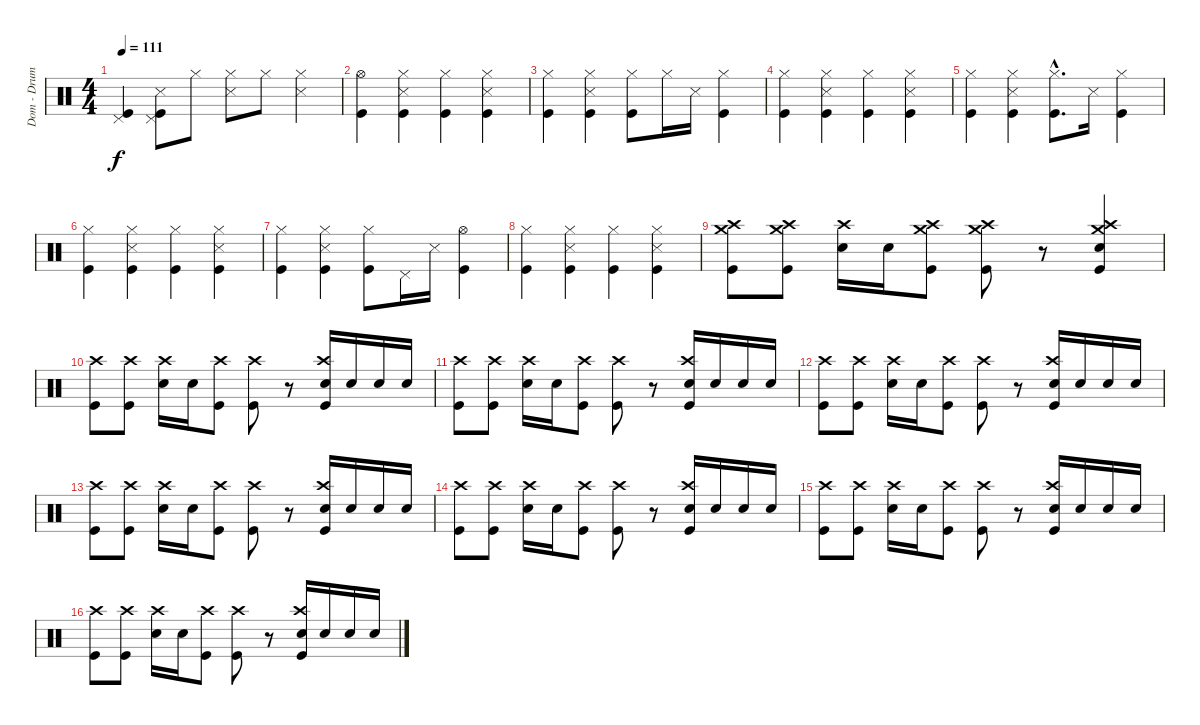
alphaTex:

\track ("Dom - Drums" "Dom - Drum") {instrument percussion}
\staff {score}
\articulation defaults
\ts (4 4)
\tempo 111
\clef neutral
\ks c
("Pedal Hi-Hat (hit)" "Kick (hit)").4{dy f} ("Pedal Hi-Hat (hit)" "Snare (side stick) 3" "Kick (hit)").8 "Hi-Hat (closed)".8 ("Hi-Hat (closed)" "Snare (side stick) 3").8 "Hi-Hat (closed)".8 ("Hi-Hat (closed)" "Snare (side stick) 3").4 |
("Hi-Hat (open)" "Kick (hit)").4 ("Hi-Hat (closed)" "Snare (side stick) 3" "Kick (hit)").4 ("Hi-Hat (closed)" "Kick (hit)").4 ("Hi-Hat (closed)" "Snare (side stick) 3" "Kick (hit)").4 |
("Hi-Hat (closed)" "Kick (hit)").4 ("Hi-Hat (closed)" "Snare (side stick) 3" "Kick (hit)").4 ("Hi-Hat (closed)" "Kick (hit)").8 "Hi-Hat (closed)".16 "Snare (side stick) 3".16 ("Hi-Hat (closed)" "Kick (hit)").4 |
("Hi-Hat (closed)" "Kick (hit)").4 ("Hi-Hat (closed)" "Snare (side stick) 3" "Kick (hit)").4 ("Hi-Hat (closed)" "Kick (hit)").4 ("Hi-Hat (closed)" "Snare (side stick) 3" "Kick (hit)").4 |
("Hi-Hat (closed)" "Kick (hit)").4 ("Hi-Hat (closed)" "Snare (side stick) 3" "Kick (hit)").4 ("Hi-Hat (closed)"{hac} "Kick (hit)"{hac}).8{d} "Snare (side stick) 3".16 ("Hi-Hat (closed)" "Kick (hit)").4 |
("Hi-Hat (closed)" "Kick (hit)").4 ("Hi-Hat (closed)" "Snare (side stick) 3" "Kick (hit)").4 ("Hi-Hat (closed)" "Kick (hit)").4 ("Hi-Hat (closed)" "Snare (side stick) 3" "Kick (hit)").4 |
("Hi-Hat (closed)" "Kick (hit)").4 ("Hi-Hat (closed)" "Snare (side stick) 3" "Kick (hit)").4 ("Hi-Hat (closed)" "Kick (hit)").8 "Pedal Hi-Hat (hit)".16 "Snare (side stick) 3".16 ("Hi-Hat (open)" "Kick (hit)").4 |
("Hi-Hat (closed)" "Kick (hit)").4 ("Hi-Hat (closed)" "Snare (side stick) 3" "Kick (hit)").4 ("Hi-Hat (closed)" "Kick (hit)").4 ("Hi-Hat (closed)" "Snare (side stick) 3" "Kick (hit)").4 |
("Crash high (hit)" "Crash medium (hit)" "Kick (hit)").8 ("Crash high (hit)" "Crash medium (hit)" "Kick (hit)").8 ("Crash high (hit)" "Electric Snare (hit)").16 "Electric Snare (hit)".16 ("Crash high (hit)" "Crash medium (hit)" "Kick (hit)").8 ("Crash high (hit)" "Crash medium (hit)" "Kick (hit)").8 r.8 ("Crash high (hit)" "Crash medium (hit)" "Electric Snare (hit)" "Kick (hit)").4 |
("Crash high (hit)" "Kick (hit)").8 ("Crash high (hit)" "Kick (hit)").8 ("Crash high (hit)" "Electric Snare (hit)").16 "Electric Snare (hit)".16 ("Crash high (hit)" "Kick (hit)").8 ("Crash high (hit)" "Kick (hit)").8 r.8 ("Crash high (hit)" "Electric Snare (hit)" "Kick (hit)").16 "Electric Snare (hit)".16 "Electric Snare (hit)".16 "Electric Snare (hit)".16 |
("Crash high (hit)" "Kick (hit)").8 ("Crash high (hit)" "Kick (hit)").8 ("Crash high (hit)" "Electric Snare (hit)").16 "Electric Snare (hit)".16 ("Crash high (hit)" "Kick (hit)").8 ("Crash high (hit)" "Kick (hit)").8 r.8 ("Crash high (hit)" "Electric Snare (hit)" "Kick (hit)").16 "Electric Snare (hit)".16 "Electric Snare (hit)".16 "Electric Snare (hit)".16 |
("Crash high (hit)" "Kick (hit)").8 ("Crash high (hit)" "Kick (hit)").8 ("Crash high (hit)" "Electric Snare (hit)").16 "Electric Snare (hit)".16 ("Crash high (hit)" "Kick (hit)").8 ("Crash high (hit)" "Kick (hit)").8 r.8 ("Crash high (hit)" "Electric Snare (hit)" "Kick (hit)").16 "Electric Snare (hit)".16 "Electric Snare (hit)".16 "Electric Snare (hit)".16 |
("Crash high (hit)" "Kick (hit)").8 ("Crash high (hit)" "Kick (hit)").8 ("Crash high (hit)" "Electric Snare (hit)").16 "Electric Snare (hit)".16 ("Crash high (hit)" "Kick (hit)").8 ("Crash high (hit)" "Kick (hit)").8 r.8 ("Crash high (hit)" "Electric Snare (hit)" "Kick (hit)").16 "Electric Snare (hit)".16 "Electric Snare (hit)".16 "Electric Snare (hit)".16 |
("Crash high (hit)" "Kick (hit)").8 ("Crash high (hit)" "Kick (hit)").8 ("Crash high (hit)" "Electric Snare (hit)").16 "Electric Snare (hit)".16 ("Crash high (hit)" "Kick (hit)").8 ("Crash high (hit)" "Kick (hit)").8 r.8 ("Crash high (hit)" "Electric Snare (hit)" "Kick (hit)").16 "Electric Snare (hit)".16 "Electric Snare (hit)".16 "Electric Snare (hit)".16 |
("Crash high (hit)" "Kick (hit)").8 ("Crash high (hit)" "Kick (hit)").8 ("Crash high (hit)" "Electric Snare (hit)").16 "Electric Snare (hit)".16 ("Crash high (hit)" "Kick (hit)").8 ("Crash high (hit)" "Kick (hit)").8 r.8 ("Crash high (hit)" "Electric Snare (hit)" "Kick (hit)").16 "Electric Snare (hit)".16 "Electric Snare (hit)".16 "Electric Snare (hit)".16 |
("Crash high (hit)" "Kick (hit)").8 ("Crash high (hit)" "Kick (hit)").8 ("Crash high (hit)" "Electric Snare (hit)").16 "Electric Snare (hit)".16 ("Crash high (hit)" "Kick (hit)").8 ("Crash high (hit)" "Kick (hit)").8 r.8 ("Crash high (hit)" "Electric Snare (hit)" "Kick (hit)").16 "Electric Snare (hit)".16 "Electric Snare (hit)".16 "Electric Snare (hit)".16
